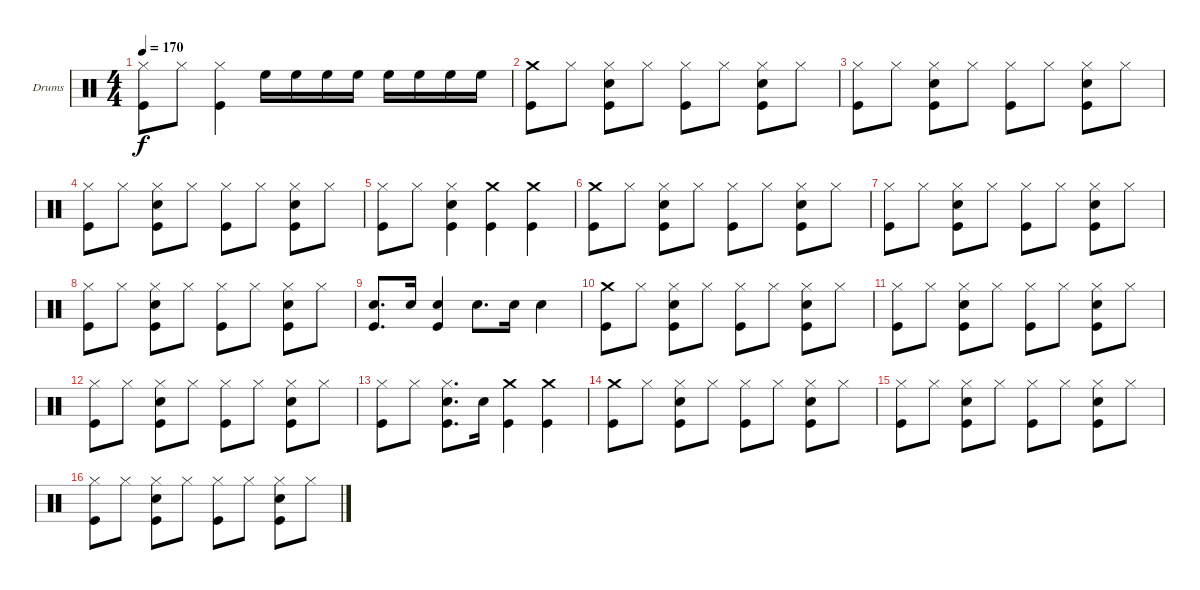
\bracketExtendMode groupsimilarinstruments
\firstSystemTrackNameOrientation horizontal
\otherSystemsTrackNameOrientation horizontal
\track ("Drumkit" "Drums") {instrument percussion}
\staff {score}
\articulation defaults
\ts (4 4)
\tempo 170
\clef neutral
\ks c
("Hi-Hat (closed)" "Kick (hit)").8{dy f} "Hi-Hat (closed)".8 ("Hi-Hat (closed)" "Kick (hit)").4 "High Floor Tom (hit)".16 "High Floor Tom (hit)".16 "High Floor Tom (hit)".16 "High Floor Tom (hit)".16 "High Floor Tom (hit)".16 "High Floor Tom (hit)".16 "High Floor Tom (hit)".16 "High Floor Tom (hit)".16 |
("Crash medium (hit)" "Kick (hit)").8 "Hi-Hat (closed)".8 ("Hi-Hat (closed)" "Snare (hit) 2" "Kick (hit)").8 "Hi-Hat (closed)".8 ("Hi-Hat (closed)" "Kick (hit)").8 "Hi-Hat (closed)".8 ("Hi-Hat (closed)" "Snare (hit) 2" "Kick (hit)").8 "Hi-Hat (closed)".8 |
("Hi-Hat (closed)" "Kick (hit)").8 "Hi-Hat (closed)".8 ("Hi-Hat (closed)" "Snare (hit) 2" "Kick (hit)").8 "Hi-Hat (closed)".8 ("Hi-Hat (closed)" "Kick (hit)").8 "Hi-Hat (closed)".8 ("Hi-Hat (closed)" "Snare (hit) 2" "Kick (hit)").8 "Hi-Hat (closed)".8 |
("Hi-Hat (closed)" "Kick (hit)").8 "Hi-Hat (closed)".8 ("Hi-Hat (closed)" "Snare (hit) 2" "Kick (hit)").8 "Hi-Hat (closed)".8 ("Hi-Hat (closed)" "Kick (hit)").8 "Hi-Hat (closed)".8 ("Hi-Hat (closed)" "Snare (hit) 2" "Kick (hit)").8 "Hi-Hat (closed)".8 |
("Hi-Hat (closed)" "Kick (hit)").8 "Hi-Hat (closed)".8 ("Hi-Hat (closed)" "Snare (hit) 2" "Kick (hit)").4 ("Crash medium (hit)" "Kick (hit)").4 ("Crash medium (hit)" "Kick (hit)").4 |
("Crash medium (hit)" "Kick (hit)").8 "Hi-Hat (closed)".8 ("Hi-Hat (closed)" "Snare (hit) 2" "Kick (hit)").8 "Hi-Hat (closed)".8 ("Hi-Hat (closed)" "Kick (hit)").8 "Hi-Hat (closed)".8 ("Hi-Hat (closed)" "Snare (hit) 2" "Kick (hit)").8 "Hi-Hat (closed)".8 |
("Hi-Hat (closed)" "Kick (hit)").8 "Hi-Hat (closed)".8 ("Hi-Hat (closed)" "Snare (hit) 2" "Kick (hit)").8 "Hi-Hat (closed)".8 ("Hi-Hat (closed)" "Kick (hit)").8 "Hi-Hat (closed)".8 ("Hi-Hat (closed)" "Snare (hit) 2" "Kick (hit)").8 "Hi-Hat (closed)".8 |
("Hi-Hat (closed)" "Kick (hit)").8 "Hi-Hat (closed)".8 ("Hi-Hat (closed)" "Snare (hit) 2" "Kick (hit)").8 "Hi-Hat (closed)".8 ("Hi-Hat (closed)" "Kick (hit)").8 "Hi-Hat (closed)".8 ("Hi-Hat (closed)" "Snare (hit) 2" "Kick (hit)").8 "Hi-Hat (closed)".8 |
("Snare (hit) 2" "Kick (hit)").8{d} "Snare (hit) 2".16 ("Snare (hit) 2" "Kick (hit)").4 "Snare (hit) 2".8{d} "Snare (hit) 2".16 "Snare (hit) 2".4 |
("Crash medium (hit)" "Kick (hit)").8 "Hi-Hat (closed)".8 ("Hi-Hat (closed)" "Snare (hit) 2" "Kick (hit)").8 "Hi-Hat (closed)".8 ("Hi-Hat (closed)" "Kick (hit)").8 "Hi-Hat (closed)".8 ("Hi-Hat (closed)" "Snare (hit) 2" "Kick (hit)").8 "Hi-Hat (closed)".8 |
("Hi-Hat (closed)" "Kick (hit)").8 "Hi-Hat (closed)".8 ("Hi-Hat (closed)" "Snare (hit) 2" "Kick (hit)").8 "Hi-Hat (closed)".8 ("Hi-Hat (closed)" "Kick (hit)").8 "Hi-Hat (closed)".8 ("Hi-Hat (closed)" "Snare (hit) 2" "Kick (hit)").8 "Hi-Hat (closed)".8 |
("Hi-Hat (closed)" "Kick (hit)").8 "Hi-Hat (closed)".8 ("Hi-Hat (closed)" "Snare (hit) 2" "Kick (hit)").8 "Hi-Hat (closed)".8 ("Hi-Hat (closed)" "Kick (hit)").8 "Hi-Hat (closed)".8 ("Hi-Hat (closed)" "Snare (hit) 2" "Kick (hit)").8 "Hi-Hat (closed)".8 |
("Hi-Hat (closed)" "Kick (hit)").8 "Hi-Hat (closed)".8 ("Hi-Hat (closed)" "Snare (hit) 2" "Kick (hit)").8{d} "Snare (hit) 2".16 ("Crash medium (hit)" "Kick (hit)").4 ("Crash medium (hit)" "Kick (hit)").4 |
("Crash medium (hit)" "Kick (hit)").8 "Hi-Hat (closed)".8 ("Hi-Hat (closed)" "Snare (hit) 2" "Kick (hit)").8 "Hi-Hat (closed)".8 ("Hi-Hat (closed)" "Kick (hit)").8 "Hi-Hat (closed)".8 ("Hi-Hat (closed)" "Snare (hit) 2" "Kick (hit)").8 "Hi-Hat (closed)".8 |
("Hi-Hat (closed)" "Kick (hit)").8 "Hi-Hat (closed)".8 ("Hi-Hat (closed)" "Snare (hit) 2" "Kick (hit)").8 "Hi-Hat (closed)".8 ("Hi-Hat (closed)" "Kick (hit)").8 "Hi-Hat (closed)".8 ("Hi-Hat (closed)" "Snare (hit) 2" "Kick (hit)").8 "Hi-Hat (closed)".8 |
("Hi-Hat (closed)" "Kick (hit)").8 "Hi-Hat (closed)".8 ("Hi-Hat (closed)" "Snare (hit) 2" "Kick (hit)").8 "Hi-Hat (closed)".8 ("Hi-Hat (closed)" "Kick (hit)").8 "Hi-Hat (closed)".8 ("Hi-Hat (closed)" "Snare (hit) 2" "Kick (hit)").8 "Hi-Hat (closed)".8
